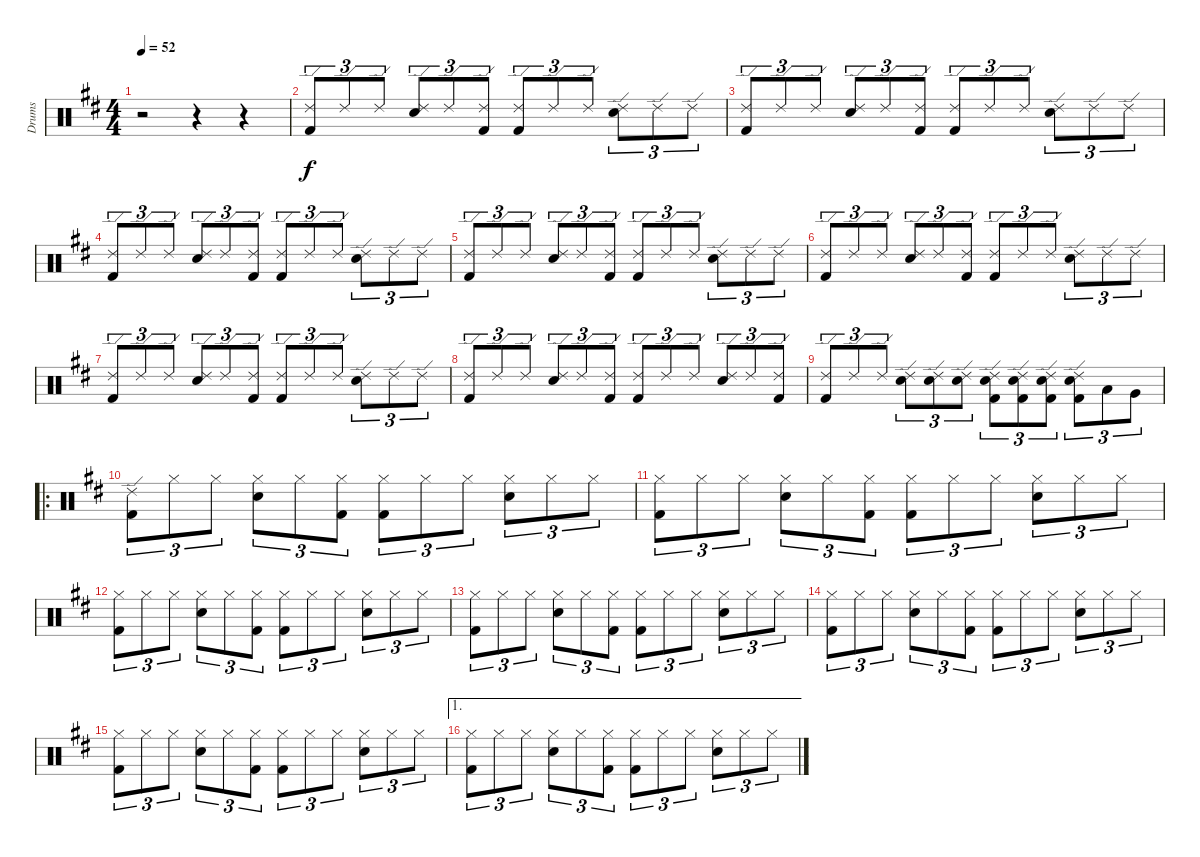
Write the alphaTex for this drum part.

\track ("Drums" "Drums") {instrument percussion}
\staff {score}
\articulation defaults
\ts (4 4)
\tempo 52
\clef neutral
\ks d
r.2{dy f} r.4 r.4 |
("Ride (edge) 2" "Kick (hit) 2").8{tu (3 2)} "Ride (edge) 2".8{tu (3 2)} "Ride (edge) 2".8{tu (3 2)} ("Ride (edge) 2" "Snare (hit) 2").8{tu (3 2)} "Ride (edge) 2".8{tu (3 2)} ("Ride (edge) 2" "Kick (hit) 2").8{tu (3 2)} ("Ride (edge) 2" "Kick (hit) 2").8{tu (3 2)} "Ride (edge) 2".8{tu (3 2)} "Ride (edge) 2".8{tu (3 2)} ("Ride (edge) 2" "Snare (hit) 2").8{tu (3 2)} "Ride (edge) 2".8{tu (3 2)} "Ride (edge) 2".8{tu (3 2)} |
("Ride (edge) 2" "Kick (hit) 2").8{tu (3 2)} "Ride (edge) 2".8{tu (3 2)} "Ride (edge) 2".8{tu (3 2)} ("Ride (edge) 2" "Snare (hit) 2").8{tu (3 2)} "Ride (edge) 2".8{tu (3 2)} ("Ride (edge) 2" "Kick (hit) 2").8{tu (3 2)} ("Ride (edge) 2" "Kick (hit) 2").8{tu (3 2)} "Ride (edge) 2".8{tu (3 2)} "Ride (edge) 2".8{tu (3 2)} ("Ride (edge) 2" "Snare (hit) 2").8{tu (3 2)} "Ride (edge) 2".8{tu (3 2)} "Ride (edge) 2".8{tu (3 2)} |
("Ride (edge) 2" "Kick (hit) 2").8{tu (3 2)} "Ride (edge) 2".8{tu (3 2)} "Ride (edge) 2".8{tu (3 2)} ("Ride (edge) 2" "Snare (hit) 2").8{tu (3 2)} "Ride (edge) 2".8{tu (3 2)} ("Ride (edge) 2" "Kick (hit) 2").8{tu (3 2)} ("Ride (edge) 2" "Kick (hit) 2").8{tu (3 2)} "Ride (edge) 2".8{tu (3 2)} "Ride (edge) 2".8{tu (3 2)} ("Ride (edge) 2" "Snare (hit) 2").8{tu (3 2)} "Ride (edge) 2".8{tu (3 2)} "Ride (edge) 2".8{tu (3 2)} |
("Ride (edge) 2" "Kick (hit) 2").8{tu (3 2)} "Ride (edge) 2".8{tu (3 2)} "Ride (edge) 2".8{tu (3 2)} ("Ride (edge) 2" "Snare (hit) 2").8{tu (3 2)} "Ride (edge) 2".8{tu (3 2)} ("Ride (edge) 2" "Kick (hit) 2").8{tu (3 2)} ("Ride (edge) 2" "Kick (hit) 2").8{tu (3 2)} "Ride (edge) 2".8{tu (3 2)} "Ride (edge) 2".8{tu (3 2)} ("Ride (edge) 2" "Snare (hit) 2").8{tu (3 2)} "Ride (edge) 2".8{tu (3 2)} "Ride (edge) 2".8{tu (3 2)} |
("Ride (edge) 2" "Kick (hit) 2").8{tu (3 2)} "Ride (edge) 2".8{tu (3 2)} "Ride (edge) 2".8{tu (3 2)} ("Ride (edge) 2" "Snare (hit) 2").8{tu (3 2)} "Ride (edge) 2".8{tu (3 2)} ("Ride (edge) 2" "Kick (hit) 2").8{tu (3 2)} ("Ride (edge) 2" "Kick (hit) 2").8{tu (3 2)} "Ride (edge) 2".8{tu (3 2)} "Ride (edge) 2".8{tu (3 2)} ("Ride (edge) 2" "Snare (hit) 2").8{tu (3 2)} "Ride (edge) 2".8{tu (3 2)} "Ride (edge) 2".8{tu (3 2)} |
("Ride (edge) 2" "Kick (hit) 2").8{tu (3 2)} "Ride (edge) 2".8{tu (3 2)} "Ride (edge) 2".8{tu (3 2)} ("Ride (edge) 2" "Snare (hit) 2").8{tu (3 2)} "Ride (edge) 2".8{tu (3 2)} ("Ride (edge) 2" "Kick (hit) 2").8{tu (3 2)} ("Ride (edge) 2" "Kick (hit) 2").8{tu (3 2)} "Ride (edge) 2".8{tu (3 2)} "Ride (edge) 2".8{tu (3 2)} ("Ride (edge) 2" "Snare (hit) 2").8{tu (3 2)} "Ride (edge) 2".8{tu (3 2)} "Ride (edge) 2".8{tu (3 2)} |
("Ride (edge) 2" "Kick (hit) 2").8{tu (3 2)} "Ride (edge) 2".8{tu (3 2)} "Ride (edge) 2".8{tu (3 2)} ("Ride (edge) 2" "Snare (hit) 2").8{tu (3 2)} "Ride (edge) 2".8{tu (3 2)} ("Ride (edge) 2" "Kick (hit) 2").8{tu (3 2)} ("Ride (edge) 2" "Kick (hit) 2").8{tu (3 2)} "Ride (edge) 2".8{tu (3 2)} "Ride (edge) 2".8{tu (3 2)} ("Ride (edge) 2" "Snare (hit) 2").8{tu (3 2)} "Ride (edge) 2".8{tu (3 2)} ("Ride (edge) 2" "Kick (hit) 2").8{tu (3 2)} |
("Ride (edge) 2" "Kick (hit) 2").8{tu (3 2)} "Ride (edge) 2".8{tu (3 2)} "Ride (edge) 2".8{tu (3 2)} ("Ride (edge) 2" "Snare (hit) 2").8{tu (3 2)} ("Ride (edge) 2" "Snare (hit) 2").8{tu (3 2)} ("Ride (edge) 2" "Snare (hit) 2").8{tu (3 2)} ("Ride (edge) 2" "Snare (hit) 2" "Kick (hit) 2").8{tu (3 2)} ("Ride (edge) 2" "Snare (hit) 2" "Kick (hit) 2").8{tu (3 2)} ("Ride (edge) 2" "Snare (hit) 2" "Kick (hit) 2").8{tu (3 2)} ("Ride (edge) 2" "Snare (hit) 2" "Kick (hit) 2").8{tu (3 2)} "Low Tom (hit)".8{tu (3 2)} "Very Low Tom (hit)".8{tu (3 2)} |
\ro
("Ride (edge) 2" "Kick (hit) 2").8{tu (3 2)} "Hi-Hat (closed)".8{tu (3 2)} "Hi-Hat (closed)".8{tu (3 2)} ("Hi-Hat (closed)" "Snare (hit) 2").8{tu (3 2)} "Hi-Hat (closed)".8{tu (3 2)} ("Hi-Hat (closed)" "Kick (hit) 2").8{tu (3 2)} ("Hi-Hat (closed)" "Kick (hit) 2").8{tu (3 2)} "Hi-Hat (closed)".8{tu (3 2)} "Hi-Hat (closed)".8{tu (3 2)} ("Hi-Hat (closed)" "Snare (hit) 2").8{tu (3 2)} "Hi-Hat (closed)".8{tu (3 2)} "Hi-Hat (closed)".8{tu (3 2)} |
("Hi-Hat (closed)" "Kick (hit) 2").8{tu (3 2)} "Hi-Hat (closed)".8{tu (3 2)} "Hi-Hat (closed)".8{tu (3 2)} ("Hi-Hat (closed)" "Snare (hit) 2").8{tu (3 2)} "Hi-Hat (closed)".8{tu (3 2)} ("Hi-Hat (closed)" "Kick (hit) 2").8{tu (3 2)} ("Hi-Hat (closed)" "Kick (hit) 2").8{tu (3 2)} "Hi-Hat (closed)".8{tu (3 2)} "Hi-Hat (closed)".8{tu (3 2)} ("Hi-Hat (closed)" "Snare (hit) 2").8{tu (3 2)} "Hi-Hat (closed)".8{tu (3 2)} "Hi-Hat (closed)".8{tu (3 2)} |
("Hi-Hat (closed)" "Kick (hit) 2").8{tu (3 2)} "Hi-Hat (closed)".8{tu (3 2)} "Hi-Hat (closed)".8{tu (3 2)} ("Hi-Hat (closed)" "Snare (hit) 2").8{tu (3 2)} "Hi-Hat (closed)".8{tu (3 2)} ("Hi-Hat (closed)" "Kick (hit) 2").8{tu (3 2)} ("Hi-Hat (closed)" "Kick (hit) 2").8{tu (3 2)} "Hi-Hat (closed)".8{tu (3 2)} "Hi-Hat (closed)".8{tu (3 2)} ("Hi-Hat (closed)" "Snare (hit) 2").8{tu (3 2)} "Hi-Hat (closed)".8{tu (3 2)} "Hi-Hat (closed)".8{tu (3 2)} |
("Hi-Hat (closed)" "Kick (hit) 2").8{tu (3 2)} "Hi-Hat (closed)".8{tu (3 2)} "Hi-Hat (closed)".8{tu (3 2)} ("Hi-Hat (closed)" "Snare (hit) 2").8{tu (3 2)} "Hi-Hat (closed)".8{tu (3 2)} ("Hi-Hat (closed)" "Kick (hit) 2").8{tu (3 2)} ("Hi-Hat (closed)" "Kick (hit) 2").8{tu (3 2)} "Hi-Hat (closed)".8{tu (3 2)} "Hi-Hat (closed)".8{tu (3 2)} ("Hi-Hat (closed)" "Snare (hit) 2").8{tu (3 2)} "Hi-Hat (closed)".8{tu (3 2)} "Hi-Hat (closed)".8{tu (3 2)} |
("Hi-Hat (closed)" "Kick (hit) 2").8{tu (3 2)} "Hi-Hat (closed)".8{tu (3 2)} "Hi-Hat (closed)".8{tu (3 2)} ("Hi-Hat (closed)" "Snare (hit) 2").8{tu (3 2)} "Hi-Hat (closed)".8{tu (3 2)} ("Hi-Hat (closed)" "Kick (hit) 2").8{tu (3 2)} ("Hi-Hat (closed)" "Kick (hit) 2").8{tu (3 2)} "Hi-Hat (closed)".8{tu (3 2)} "Hi-Hat (closed)".8{tu (3 2)} ("Hi-Hat (closed)" "Snare (hit) 2").8{tu (3 2)} "Hi-Hat (closed)".8{tu (3 2)} "Hi-Hat (closed)".8{tu (3 2)} |
("Hi-Hat (closed)" "Kick (hit) 2").8{tu (3 2)} "Hi-Hat (closed)".8{tu (3 2)} "Hi-Hat (closed)".8{tu (3 2)} ("Hi-Hat (closed)" "Snare (hit) 2").8{tu (3 2)} "Hi-Hat (closed)".8{tu (3 2)} ("Hi-Hat (closed)" "Kick (hit) 2").8{tu (3 2)} ("Hi-Hat (closed)" "Kick (hit) 2").8{tu (3 2)} "Hi-Hat (closed)".8{tu (3 2)} "Hi-Hat (closed)".8{tu (3 2)} ("Hi-Hat (closed)" "Snare (hit) 2").8{tu (3 2)} "Hi-Hat (closed)".8{tu (3 2)} "Hi-Hat (closed)".8{tu (3 2)} |
\ae 1
("Hi-Hat (closed)" "Kick (hit) 2").8{tu (3 2)} "Hi-Hat (closed)".8{tu (3 2)} "Hi-Hat (closed)".8{tu (3 2)} ("Hi-Hat (closed)" "Snare (hit) 2").8{tu (3 2)} "Hi-Hat (closed)".8{tu (3 2)} ("Hi-Hat (closed)" "Kick (hit) 2").8{tu (3 2)} ("Hi-Hat (closed)" "Kick (hit) 2").8{tu (3 2)} "Hi-Hat (closed)".8{tu (3 2)} "Hi-Hat (closed)".8{tu (3 2)} ("Hi-Hat (closed)" "Snare (hit) 2").8{tu (3 2)} "Hi-Hat (closed)".8{tu (3 2)} "Hi-Hat (closed)".8{tu (3 2)}
